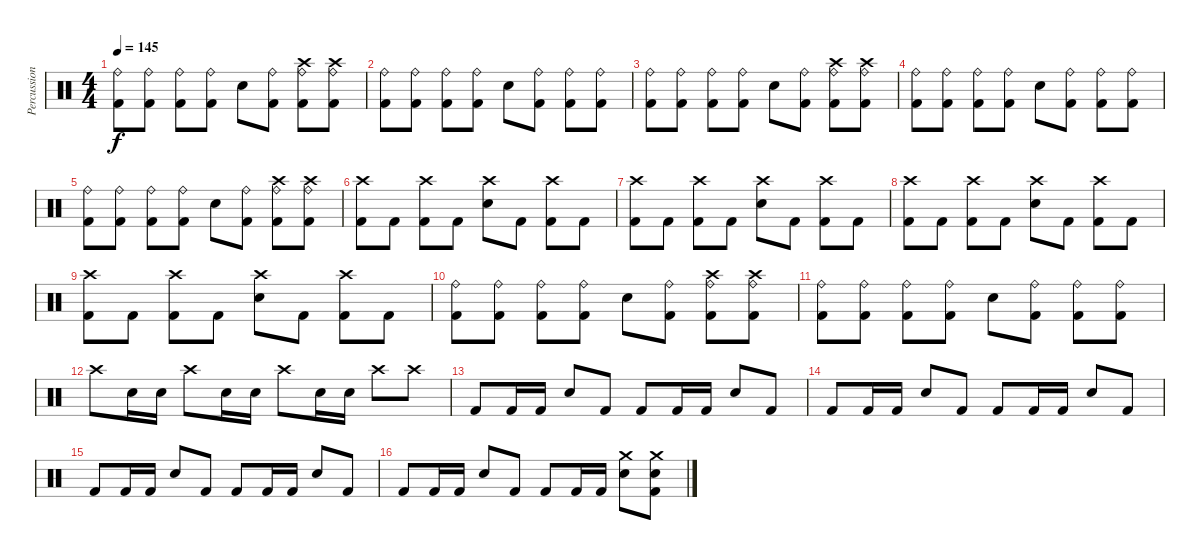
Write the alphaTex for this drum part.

\track ("Percussion" "Percussion") {instrument percussion}
\staff {score}
\articulation defaults
\ts (4 4)
\tempo 145
\clef neutral
\ks c
("Ride (bell)" "Kick (hit) 2").8{dy f} ("Ride (bell)" "Kick (hit) 2").8 ("Ride (bell)" "Kick (hit) 2").8 ("Ride (bell)" "Kick (hit) 2").8 "Snare (hit) 2".8 ("Ride (bell)" "Kick (hit) 2").8 ("Crash high (hit)" "Ride (bell)" "Kick (hit) 2").8 ("Crash high (hit)" "Ride (bell)" "Kick (hit) 2").8 |
("Ride (bell)" "Kick (hit) 2").8 ("Ride (bell)" "Kick (hit) 2").8 ("Ride (bell)" "Kick (hit) 2").8 ("Ride (bell)" "Kick (hit) 2").8 "Snare (hit) 2".8 ("Ride (bell)" "Kick (hit) 2").8 ("Ride (bell)" "Kick (hit) 2").8 ("Ride (bell)" "Kick (hit) 2").8 |
("Ride (bell)" "Kick (hit) 2").8 ("Ride (bell)" "Kick (hit) 2").8 ("Ride (bell)" "Kick (hit) 2").8 ("Ride (bell)" "Kick (hit) 2").8 "Snare (hit) 2".8 ("Ride (bell)" "Kick (hit) 2").8 ("Crash high (hit)" "Ride (bell)" "Kick (hit) 2").8 ("Crash high (hit)" "Ride (bell)" "Kick (hit) 2").8 |
("Ride (bell)" "Kick (hit) 2").8 ("Ride (bell)" "Kick (hit) 2").8 ("Ride (bell)" "Kick (hit) 2").8 ("Ride (bell)" "Kick (hit) 2").8 "Snare (hit) 2".8 ("Ride (bell)" "Kick (hit) 2").8 ("Ride (bell)" "Kick (hit) 2").8 ("Ride (bell)" "Kick (hit) 2").8 |
("Ride (bell)" "Kick (hit) 2").8 ("Ride (bell)" "Kick (hit) 2").8 ("Ride (bell)" "Kick (hit) 2").8 ("Ride (bell)" "Kick (hit) 2").8 "Snare (hit) 2".8 ("Ride (bell)" "Kick (hit) 2").8 ("Crash high (hit)" "Ride (bell)" "Kick (hit) 2").8 ("Crash high (hit)" "Ride (bell)" "Kick (hit) 2").8 |
("Crash high (hit)" "Kick (hit) 2").8 "Kick (hit) 2".8 ("Crash high (hit)" "Kick (hit) 2").8 "Kick (hit) 2".8 ("Crash high (hit)" "Snare (hit) 2").8 "Kick (hit) 2".8 ("Crash high (hit)" "Kick (hit) 2").8 "Kick (hit) 2".8 |
("Crash high (hit)" "Kick (hit) 2").8 "Kick (hit) 2".8 ("Crash high (hit)" "Kick (hit) 2").8 "Kick (hit) 2".8 ("Crash high (hit)" "Snare (hit) 2").8 "Kick (hit) 2".8 ("Crash high (hit)" "Kick (hit) 2").8 "Kick (hit) 2".8 |
("Crash high (hit)" "Kick (hit) 2").8 "Kick (hit) 2".8 ("Crash high (hit)" "Kick (hit) 2").8 "Kick (hit) 2".8 ("Crash high (hit)" "Snare (hit) 2").8 "Kick (hit) 2".8 ("Crash high (hit)" "Kick (hit) 2").8 "Kick (hit) 2".8 |
("Crash high (hit)" "Kick (hit) 2").8 "Kick (hit) 2".8 ("Crash high (hit)" "Kick (hit) 2").8 "Kick (hit) 2".8 ("Crash high (hit)" "Snare (hit) 2").8 "Kick (hit) 2".8 ("Crash high (hit)" "Kick (hit) 2").8 "Kick (hit) 2".8 |
("Ride (bell)" "Kick (hit) 2").8 ("Ride (bell)" "Kick (hit) 2").8 ("Ride (bell)" "Kick (hit) 2").8 ("Ride (bell)" "Kick (hit) 2").8 "Snare (hit) 2".8 ("Ride (bell)" "Kick (hit) 2").8 ("Crash high (hit)" "Ride (bell)" "Kick (hit) 2").8 ("Crash high (hit)" "Ride (bell)" "Kick (hit) 2").8 |
("Ride (bell)" "Kick (hit) 2").8 ("Ride (bell)" "Kick (hit) 2").8 ("Ride (bell)" "Kick (hit) 2").8 ("Ride (bell)" "Kick (hit) 2").8 "Snare (hit) 2".8 ("Ride (bell)" "Kick (hit) 2").8 ("Ride (bell)" "Kick (hit) 2").8 ("Ride (bell)" "Kick (hit) 2").8 |
"Crash high (hit)".8 "Snare (hit) 2".16 "Snare (hit) 2".16 "Crash high (hit)".8 "Snare (hit) 2".16 "Snare (hit) 2".16 "Crash high (hit)".8 "Snare (hit) 2".16 "Snare (hit) 2".16 "Crash high (hit)".8 "Crash high (hit)".8 |
"Kick (hit) 2".8 "Kick (hit) 2".16 "Kick (hit) 2".16 "Snare (hit) 2".8 "Kick (hit) 2".8 "Kick (hit) 2".8 "Kick (hit) 2".16 "Kick (hit) 2".16 "Snare (hit) 2".8 "Kick (hit) 2".8 |
"Kick (hit) 2".8 "Kick (hit) 2".16 "Kick (hit) 2".16 "Snare (hit) 2".8 "Kick (hit) 2".8 "Kick (hit) 2".8 "Kick (hit) 2".16 "Kick (hit) 2".16 "Snare (hit) 2".8 "Kick (hit) 2".8 |
"Kick (hit) 2".8 "Kick (hit) 2".16 "Kick (hit) 2".16 "Snare (hit) 2".8 "Kick (hit) 2".8 "Kick (hit) 2".8 "Kick (hit) 2".16 "Kick (hit) 2".16 "Snare (hit) 2".8 "Kick (hit) 2".8 |
"Kick (hit) 2".8 "Kick (hit) 2".16 "Kick (hit) 2".16 "Snare (hit) 2".8 "Kick (hit) 2".8 "Kick (hit) 2".8 "Kick (hit) 2".16 "Kick (hit) 2".16 ("Crash medium (hit)" "Snare (hit) 2").8 ("Crash medium (hit)" "Snare (hit) 2" "Kick (hit) 2").8
